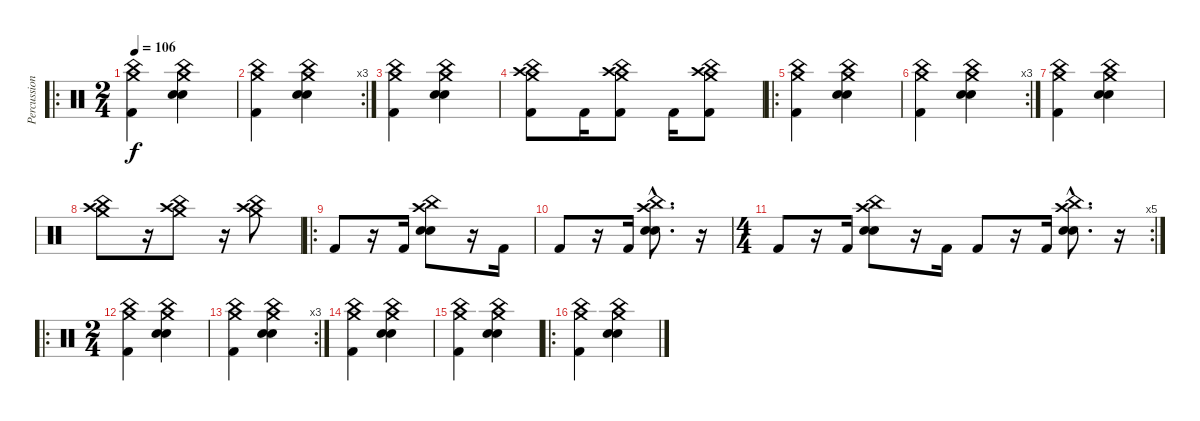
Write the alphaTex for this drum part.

\track ("Percussions" "Percussion") {instrument percussion}
\staff {score}
\articulation defaults
\ro
\ts (2 4)
\tempo 106
\clef neutral
\ks c
("China (hit)" "Kick (hit) 2" "Crash medium (hit)").4{dy f} ("China (hit)" "Electric Snare (hit)" "Crash medium (hit)" "Snare (hit) 2").4 |
\rc 3
("China (hit)" "Kick (hit) 2" "Crash medium (hit)").4 ("China (hit)" "Electric Snare (hit)" "Crash medium (hit)" "Snare (hit) 2").4 |
("China (hit)" "Kick (hit) 2" "Crash medium (hit)").4 ("China (hit)" "Electric Snare (hit)" "Crash medium (hit)" "Snare (hit) 2").4 |
("China (hit)" "Crash high (hit)" "Crash medium (hit)" "Kick (hit) 2").8 "Kick (hit) 2".16 ("China (hit)" "Crash high (hit)" "Crash medium (hit)" "Kick (hit) 2").8 "Kick (hit) 2".16 ("China (hit)" "Crash high (hit)" "Crash medium (hit)" "Kick (hit) 2").8 |
\ro
("China (hit)" "Kick (hit) 2" "Crash medium (hit)").4 ("China (hit)" "Electric Snare (hit)" "Crash medium (hit)" "Snare (hit) 2").4 |
\rc 3
("China (hit)" "Kick (hit) 2" "Crash medium (hit)").4 ("China (hit)" "Electric Snare (hit)" "Crash medium (hit)" "Snare (hit) 2").4 |
("China (hit)" "Kick (hit) 2" "Crash medium (hit)").4 ("China (hit)" "Electric Snare (hit)" "Crash medium (hit)" "Snare (hit) 2").4 |
("China (hit)" "Crash high (hit)" "Crash medium (hit)").8 r.16 ("China (hit)" "Crash high (hit)" "Crash medium (hit)").8 r.16 ("China (hit)" "Crash high (hit)" "Crash medium (hit)").8 |
\ro "Kick (hit) 2".8
r.16 "Kick (hit) 2".16 ("Snare (hit) 2" "Crash high (hit)" "China (hit)" "Electric Snare (hit)").8 r.16 "Kick (hit) 2".16 |
"Kick (hit) 2".8 r.16 "Kick (hit) 2".16 ("Snare (hit) 2"{hac} "China (hit)"{hac} "Crash high (hit)"{hac} "Electric Snare (hit)"{hac}).8{d} r.16 |
\rc 5
\ts (4 4)
"Kick (hit) 2".8 r.16 "Kick (hit) 2".16 ("Snare (hit) 2" "China (hit)" "Crash high (hit)" "Electric Snare (hit)").8 r.16 "Kick (hit) 2".16 "Kick (hit) 2".8 r.16 "Kick (hit) 2".16 ("Snare (hit) 2"{hac} "China (hit)"{hac} "Crash high (hit)"{hac} "Electric Snare (hit)"{hac}).8{d} r.16 |
\ro
\ts (2 4)
("China (hit)" "Kick (hit) 2" "Crash medium (hit)").4 ("China (hit)" "Electric Snare (hit)" "Crash medium (hit)" "Snare (hit) 2").4 |
\rc 3
("China (hit)" "Kick (hit) 2" "Crash medium (hit)").4 ("China (hit)" "Electric Snare (hit)" "Crash medium (hit)" "Snare (hit) 2").4 |
("China (hit)" "Kick (hit) 2" "Crash medium (hit)").4 ("China (hit)" "Electric Snare (hit)" "Crash medium (hit)" "Snare (hit) 2").4 |
("China (hit)" "Kick (hit) 2" "Crash medium (hit)").4 ("China (hit)" "Electric Snare (hit)" "Crash medium (hit)" "Snare (hit) 2").4 |
\ro
("China (hit)" "Kick (hit) 2" "Crash medium (hit)").4 ("China (hit)" "Electric Snare (hit)" "Crash medium (hit)" "Snare (hit) 2").4
